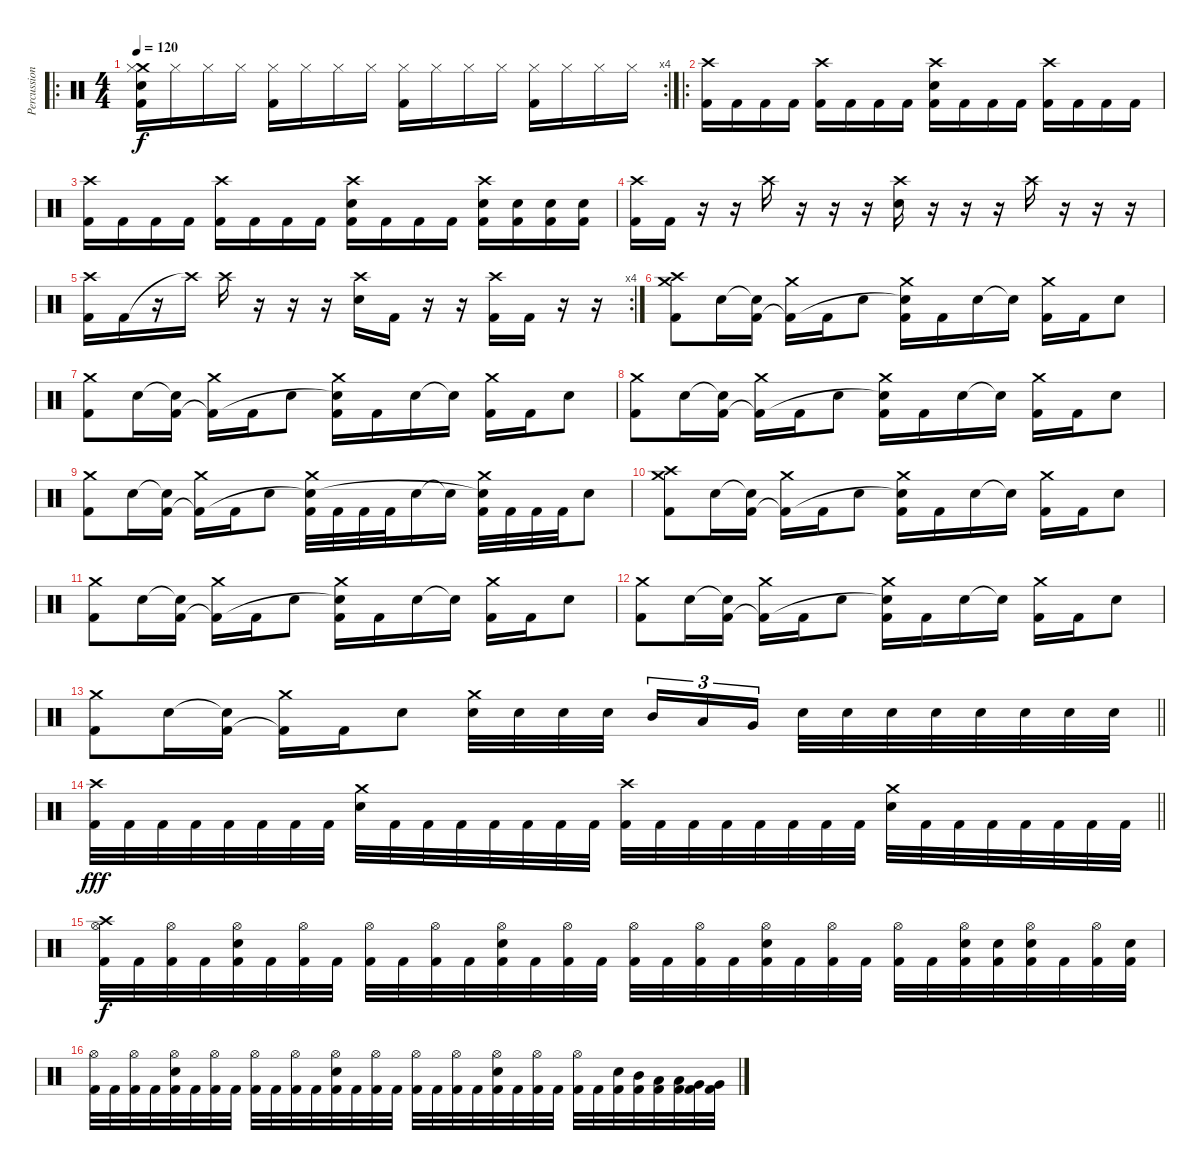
\track ("Percussions" "Percussion") {instrument percussion}
\staff {score}
\articulation defaults
\ro
\rc 4
\ts (4 4)
\tempo 120
\clef neutral
\ks c
("Crash medium (hit)" "Hi-Hat (closed)" "Kick (hit) 2" "Electric Snare (hit)").16{dy f} "Hi-Hat (closed)".16 "Hi-Hat (closed)".16 "Hi-Hat (closed)".16 ("Hi-Hat (closed)" "Kick (hit) 2").16 "Hi-Hat (closed)".16 "Hi-Hat (closed)".16 "Hi-Hat (closed)".16 ("Hi-Hat (closed)" "Kick (hit) 2").16 "Hi-Hat (closed)".16 "Hi-Hat (closed)".16 "Hi-Hat (closed)".16 ("Hi-Hat (closed)" "Kick (hit) 2").16 "Hi-Hat (closed)".16 "Hi-Hat (closed)".16 "Hi-Hat (closed)".16 |
\ro
("Crash high (hit)" "Kick (hit) 2").16 "Kick (hit) 2".16 "Kick (hit) 2".16 "Kick (hit) 2".16 ("Crash high (hit)" "Kick (hit) 2").16 "Kick (hit) 2".16 "Kick (hit) 2".16 "Kick (hit) 2".16 ("Crash high (hit)" "Electric Snare (hit)" "Kick (hit) 2").16 "Kick (hit) 2".16 "Kick (hit) 2".16 "Kick (hit) 2".16 ("Crash high (hit)" "Kick (hit) 2").16 "Kick (hit) 2".16 "Kick (hit) 2".16 "Kick (hit) 2".16 |
("Crash high (hit)" "Kick (hit) 2").16 "Kick (hit) 2".16 "Kick (hit) 2".16 "Kick (hit) 2".16 ("Crash high (hit)" "Kick (hit) 2").16 "Kick (hit) 2".16 "Kick (hit) 2".16 "Kick (hit) 2".16 ("Crash high (hit)" "Electric Snare (hit)" "Kick (hit) 2").16 "Kick (hit) 2".16 "Kick (hit) 2".16 "Kick (hit) 2".16 ("Crash high (hit)" "Electric Snare (hit)" "Kick (hit) 2").16 ("Electric Snare (hit)" "Kick (hit) 2").16 ("Electric Snare (hit)" "Kick (hit) 2").16 ("Electric Snare (hit)" "Kick (hit) 2").16 |
("Crash high (hit)" "Kick (hit) 2").16 "Kick (hit) 2".16 r.16 r.16 "Crash high (hit)".16 r.16 r.16 r.16 ("Crash high (hit)" "Snare (hit) 2").16 r.16 r.16 r.16 "Crash high (hit)".16 r.16 r.16 r.16 |
\rc 4
("Crash high (hit)" "Kick (hit) 2").16 "Kick (hit) 2".16 r.16 "Crash high (hit)"{t}.16 "Crash high (hit)".16 r.16 r.16 r.16 ("Crash high (hit)" "Snare (hit) 2").16 "Kick (hit) 2".16 r.16 r.16 ("Crash high (hit)" "Kick (hit) 2").16 "Kick (hit) 2".16 r.16 r.16 |
("Crash medium (hit)" "Crash high (hit)" "Kick (hit) 2").8 "Snare (hit) 2".16 ("Snare (hit)"{t} "Kick (hit) 2").16 ("Crash medium (hit)" "Kick (hit) 2"{t}).16 "Kick (hit) 2".16 "Snare (hit) 2".8 ("Crash medium (hit)" "Snare (hit) 2"{t} "Kick (hit) 2").16 "Kick (hit) 2".16 "Snare (hit) 2".16 "Snare (hit) 2"{t}.16 ("Crash medium (hit)" "Kick (hit) 2").16 "Kick (hit) 2".16 "Snare (hit) 2".8 |
("Crash medium (hit)" "Kick (hit) 2").8 "Snare (hit) 2".16 ("Snare (hit)"{t} "Kick (hit) 2").16 ("Crash medium (hit)" "Kick (hit) 2"{t}).16 "Kick (hit) 2".16 "Snare (hit) 2".8 ("Crash medium (hit)" "Snare (hit) 2"{t} "Kick (hit) 2").16 "Kick (hit) 2".16 "Snare (hit) 2".16 "Snare (hit) 2"{t}.16 ("Crash medium (hit)" "Kick (hit) 2").16 "Kick (hit) 2".16 "Snare (hit) 2".8 |
("Crash medium (hit)" "Kick (hit) 2").8 "Snare (hit) 2".16 ("Snare (hit)"{t} "Kick (hit) 2").16 ("Crash medium (hit)" "Kick (hit) 2"{t}).16 "Kick (hit) 2".16 "Snare (hit) 2".8 ("Crash medium (hit)" "Snare (hit) 2"{t} "Kick (hit) 2").16 "Kick (hit) 2".16 "Snare (hit) 2".16 "Snare (hit) 2"{t}.16 ("Crash medium (hit)" "Kick (hit) 2").16 "Kick (hit) 2".16 "Snare (hit) 2".8 |
("Crash medium (hit)" "Kick (hit) 2").8 "Snare (hit) 2".16 ("Snare (hit)"{t} "Kick (hit) 2").16 ("Crash medium (hit)" "Kick (hit) 2"{t}).16 "Kick (hit) 2".16 "Snare (hit) 2".8 ("Crash medium (hit)" "Snare (hit) 2"{t} "Kick (hit) 2").32 "Kick (hit) 2".32 "Kick (hit) 2".32 "Kick (hit) 2".32 "Snare (hit) 2".16 "Snare (hit) 2"{t}.16 ("Crash medium (hit)" "Snare (hit) 2"{t} "Kick (hit) 2").32 "Kick (hit) 2".32 "Kick (hit) 2".32 "Kick (hit) 2".32 "Snare (hit) 2".8 |
("Crash medium (hit)" "Crash high (hit)" "Kick (hit) 2").8 "Snare (hit) 2".16 ("Snare (hit)"{t} "Kick (hit) 2").16 ("Crash medium (hit)" "Kick (hit) 2"{t}).16 "Kick (hit) 2".16 "Snare (hit) 2".8 ("Crash medium (hit)" "Snare (hit) 2"{t} "Kick (hit) 2").16 "Kick (hit) 2".16 "Snare (hit) 2".16 "Snare (hit) 2"{t}.16 ("Crash medium (hit)" "Kick (hit) 2").16 "Kick (hit) 2".16 "Snare (hit) 2".8 |
("Crash medium (hit)" "Kick (hit) 2").8 "Snare (hit) 2".16 ("Snare (hit)"{t} "Kick (hit) 2").16 ("Crash medium (hit)" "Kick (hit) 2"{t}).16 "Kick (hit) 2".16 "Snare (hit) 2".8 ("Crash medium (hit)" "Snare (hit) 2"{t} "Kick (hit) 2").16 "Kick (hit) 2".16 "Snare (hit) 2".16 "Snare (hit) 2"{t}.16 ("Crash medium (hit)" "Kick (hit) 2").16 "Kick (hit) 2".16 "Snare (hit) 2".8 |
("Crash medium (hit)" "Kick (hit) 2").8 "Snare (hit) 2".16 ("Snare (hit)"{t} "Kick (hit) 2").16 ("Crash medium (hit)" "Kick (hit) 2"{t}).16 "Kick (hit) 2".16 "Snare (hit) 2".8 ("Crash medium (hit)" "Snare (hit) 2"{t} "Kick (hit) 2").16 "Kick (hit) 2".16 "Snare (hit) 2".16 "Snare (hit) 2"{t}.16 ("Crash medium (hit)" "Kick (hit) 2").16 "Kick (hit) 2".16 "Snare (hit) 2".8 |
\barLineRight lightlight
("Crash medium (hit)" "Kick (hit) 2").8 "Snare (hit) 2".16 ("Snare (hit)"{t} "Kick (hit) 2").16 ("Crash medium (hit)" "Kick (hit) 2"{t}).16 "Kick (hit) 2".16 "Snare (hit) 2".8 ("Crash medium (hit)" "Electric Snare (hit)").32 "Electric Snare (hit)".32 "Electric Snare (hit)".32 "Electric Snare (hit)".32{beam splitsecondary} "Mid Tom (hit)".16{tu (3 2)} "Low Tom (hit)".16{tu (3 2)} "Very Low Tom (hit)".16{tu (3 2)} "Electric Snare (hit)".32 "Electric Snare (hit)".32 "Electric Snare (hit)".32 "Electric Snare (hit)".32 "Electric Snare (hit)".32 "Electric Snare (hit)".32 "Electric Snare (hit)".32 "Electric Snare (hit)".32 |
\barLineRight lightlight
("Crash high (hit)" "Kick (hit) 2").32{dy fff} "Kick (hit) 2".32 "Kick (hit) 2".32 "Kick (hit) 2".32 "Kick (hit) 2".32 "Kick (hit) 2".32 "Kick (hit) 2".32 "Kick (hit) 2".32 ("Crash medium (hit)" "Electric Snare (hit)").32 "Kick (hit) 2".32 "Kick (hit) 2".32 "Kick (hit) 2".32 "Kick (hit) 2".32 "Kick (hit) 2".32 "Kick (hit) 2".32 "Kick (hit) 2".32 ("Crash high (hit)" "Kick (hit) 2").32 "Kick (hit) 2".32 "Kick (hit) 2".32 "Kick (hit) 2".32 "Kick (hit) 2".32 "Kick (hit) 2".32 "Kick (hit) 2".32 "Kick (hit) 2".32 ("Crash medium (hit)" "Electric Snare (hit)").32 "Kick (hit) 2".32 "Kick (hit) 2".32 "Kick (hit) 2".32 "Kick (hit) 2".32 "Kick (hit) 2".32 "Kick (hit) 2".32 "Kick (hit) 2".32 |
("Kick (hit) 2" "Hi-Hat (open)" "Crash high (hit)").32{dy f} "Kick (hit) 2".32 ("Kick (hit) 2" "Hi-Hat (open)").32 "Kick (hit) 2".32 ("Kick (hit) 2" "Electric Snare (hit)" "Hi-Hat (open)").32 "Kick (hit) 2".32 ("Kick (hit) 2" "Hi-Hat (open)").32 "Kick (hit) 2".32 ("Kick (hit) 2" "Hi-Hat (open)").32 "Kick (hit) 2".32 ("Kick (hit) 2" "Hi-Hat (open)").32 "Kick (hit) 2".32 ("Kick (hit) 2" "Electric Snare (hit)" "Hi-Hat (open)").32 "Kick (hit) 2".32 ("Kick (hit) 2" "Hi-Hat (open)").32 "Kick (hit) 2".32 ("Kick (hit) 2" "Hi-Hat (open)").32 "Kick (hit) 2".32 ("Kick (hit) 2" "Hi-Hat (open)").32 "Kick (hit) 2".32 ("Kick (hit) 2" "Electric Snare (hit)" "Hi-Hat (open)").32 "Kick (hit) 2".32 ("Kick (hit) 2" "Hi-Hat (open)").32 "Kick (hit) 2".32 ("Kick (hit) 2" "Hi-Hat (open)").32 "Kick (hit) 2".32 ("Kick (hit) 2" "Electric Snare (hit)" "Hi-Hat (open)").32 ("Kick (hit) 2" "Electric Snare (hit)").32 ("Kick (hit) 2" "Electric Snare (hit)" "Hi-Hat (open)").32 "Kick (hit) 2".32 ("Kick (hit) 2" "Hi-Hat (open)").32 ("Kick (hit) 2" "Electric Snare (hit)").32 |
("Kick (hit) 2" "Hi-Hat (open)").32 "Kick (hit) 2".32 ("Kick (hit) 2" "Hi-Hat (open)").32 "Kick (hit) 2".32 ("Kick (hit) 2" "Electric Snare (hit)" "Hi-Hat (open)").32 "Kick (hit) 2".32 ("Kick (hit) 2" "Hi-Hat (open)").32 "Kick (hit) 2".32 ("Kick (hit) 2" "Hi-Hat (open)").32 "Kick (hit) 2".32 ("Kick (hit) 2" "Hi-Hat (open)").32 "Kick (hit) 2".32 ("Kick (hit) 2" "Electric Snare (hit)" "Hi-Hat (open)").32 "Kick (hit) 2".32 ("Kick (hit) 2" "Hi-Hat (open)").32 "Kick (hit) 2".32 ("Kick (hit) 2" "Hi-Hat (open)").32 "Kick (hit) 2".32 ("Kick (hit) 2" "Hi-Hat (open)").32 "Kick (hit) 2".32 ("Kick (hit) 2" "Electric Snare (hit)" "Hi-Hat (open)").32 "Kick (hit) 2".32 ("Kick (hit) 2" "Hi-Hat (open)").32 "Kick (hit) 2".32 ("Kick (hit) 2" "Hi-Hat (open)").32 "Kick (hit) 2".32 ("Kick (hit) 2" "Electric Snare (hit)").32 ("Kick (hit) 2" "Mid Tom (hit)").32 ("Kick (hit) 2" "Low Tom (hit)").32 ("Kick (hit) 2" "Low Tom (hit)").32 ("Kick (hit) 2" "Very Low Tom (hit)").32 ("Kick (hit) 2" "Very Low Tom (hit)").32
